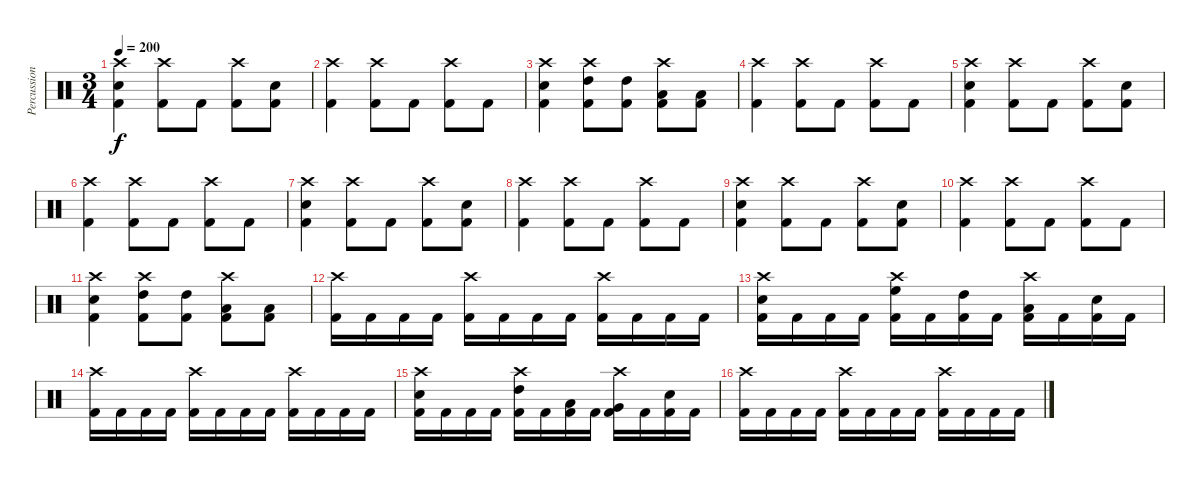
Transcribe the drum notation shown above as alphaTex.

\track ("Percussion" "Percussion") {instrument percussion}
\staff
\articulation defaults
\ts (3 4)
\tempo 200
\clef neutral
\ks c
("Crash high (hit)" "Electric Snare (hit)" "Kick (hit) 2").4{dy f} ("Crash high (hit)" "Kick (hit) 2").8 "Kick (hit) 2".8 ("Crash high (hit)" "Kick (hit) 2").8 ("Electric Snare (hit)" "Kick (hit) 2").8 |
("Crash high (hit)" "Kick (hit) 2").4 ("Crash high (hit)" "Kick (hit) 2").8 "Kick (hit) 2".8 ("Crash high (hit)" "Kick (hit) 2").8 "Kick (hit) 2".8 |
("Crash high (hit)" "Electric Snare (hit)" "Kick (hit) 2").4 ("Crash high (hit)" "High Tom (hit)" "Kick (hit) 2").8 ("High Tom (hit)" "Kick (hit) 2").8 ("Crash high (hit)" "Low Tom (hit)" "Kick (hit) 2").8 ("Low Tom (hit)" "Kick (hit) 2").8 |
("Crash high (hit)" "Kick (hit) 2").4 ("Crash high (hit)" "Kick (hit) 2").8 "Kick (hit) 2".8 ("Crash high (hit)" "Kick (hit) 2").8 "Kick (hit) 2".8 |
("Crash high (hit)" "Electric Snare (hit)" "Kick (hit) 2").4 ("Crash high (hit)" "Kick (hit) 2").8 "Kick (hit) 2".8 ("Crash high (hit)" "Kick (hit) 2").8 ("Electric Snare (hit)" "Kick (hit) 2").8 |
("Crash high (hit)" "Kick (hit) 2").4 ("Crash high (hit)" "Kick (hit) 2").8 "Kick (hit) 2".8 ("Crash high (hit)" "Kick (hit) 2").8 "Kick (hit) 2".8 |
("Crash high (hit)" "Electric Snare (hit)" "Kick (hit) 2").4 ("Crash high (hit)" "Kick (hit) 2").8 "Kick (hit) 2".8 ("Crash high (hit)" "Kick (hit) 2").8 ("Electric Snare (hit)" "Kick (hit) 2").8 |
("Crash high (hit)" "Kick (hit) 2").4 ("Crash high (hit)" "Kick (hit) 2").8 "Kick (hit) 2".8 ("Crash high (hit)" "Kick (hit) 2").8 "Kick (hit) 2".8 |
("Crash high (hit)" "Electric Snare (hit)" "Kick (hit) 2").4 ("Crash high (hit)" "Kick (hit) 2").8 "Kick (hit) 2".8 ("Crash high (hit)" "Kick (hit) 2").8 ("Electric Snare (hit)" "Kick (hit) 2").8 |
("Crash high (hit)" "Kick (hit) 2").4 ("Crash high (hit)" "Kick (hit) 2").8 "Kick (hit) 2".8 ("Crash high (hit)" "Kick (hit) 2").8 "Kick (hit) 2".8 |
("Crash high (hit)" "Electric Snare (hit)" "Kick (hit) 2").4 ("Crash high (hit)" "High Tom (hit)" "Kick (hit) 2").8 ("High Tom (hit)" "Kick (hit) 2").8 ("Crash high (hit)" "Low Tom (hit)" "Kick (hit) 2").8 ("Low Tom (hit)" "Kick (hit) 2").8 |
("Crash high (hit)" "Kick (hit) 2").16 "Kick (hit) 2".16 "Kick (hit) 2".16 "Kick (hit) 2".16 ("Crash high (hit)" "Kick (hit) 2").16 "Kick (hit) 2".16 "Kick (hit) 2".16 "Kick (hit) 2".16 ("Crash high (hit)" "Kick (hit) 2").16 "Kick (hit) 2".16 "Kick (hit) 2".16 "Kick (hit) 2".16 |
("Crash high (hit)" "Electric Snare (hit)" "Kick (hit) 2").16 "Kick (hit) 2".16 "Kick (hit) 2".16 "Kick (hit) 2".16 ("Crash high (hit)" "High Floor Tom (hit)" "Kick (hit) 2").16 "Kick (hit) 2".16 ("High Tom (hit)" "Kick (hit) 2").16 "Kick (hit) 2".16 ("Crash high (hit)" "Low Tom (hit)" "Kick (hit) 2").16 "Kick (hit) 2".16 ("Electric Snare (hit)" "Kick (hit) 2").16 "Kick (hit) 2".16 |
("Crash high (hit)" "Kick (hit) 2").16 "Kick (hit) 2".16 "Kick (hit) 2".16 "Kick (hit) 2".16 ("Crash high (hit)" "Kick (hit) 2").16 "Kick (hit) 2".16 "Kick (hit) 2".16 "Kick (hit) 2".16 ("Crash high (hit)" "Kick (hit) 2").16 "Kick (hit) 2".16 "Kick (hit) 2".16 "Kick (hit) 2".16 |
("Crash high (hit)" "Electric Snare (hit)" "Kick (hit) 2").16 "Kick (hit) 2".16 "Kick (hit) 2".16 "Kick (hit) 2".16 ("Crash high (hit)" "High Tom (hit)" "Kick (hit) 2").16 "Kick (hit) 2".16 ("Low Tom (hit)" "Kick (hit) 2").16 "Kick (hit) 2".16 ("Crash high (hit)" "Very Low Tom (hit)" "Kick (hit) 2").16 "Kick (hit) 2".16 ("Electric Snare (hit)" "Kick (hit) 2").16 "Kick (hit) 2".16 |
("Crash high (hit)" "Kick (hit) 2").16 "Kick (hit) 2".16 "Kick (hit) 2".16 "Kick (hit) 2".16 ("Crash high (hit)" "Kick (hit) 2").16 "Kick (hit) 2".16 "Kick (hit) 2".16 "Kick (hit) 2".16 ("Crash high (hit)" "Kick (hit) 2").16 "Kick (hit) 2".16 "Kick (hit) 2".16 "Kick (hit) 2".16
